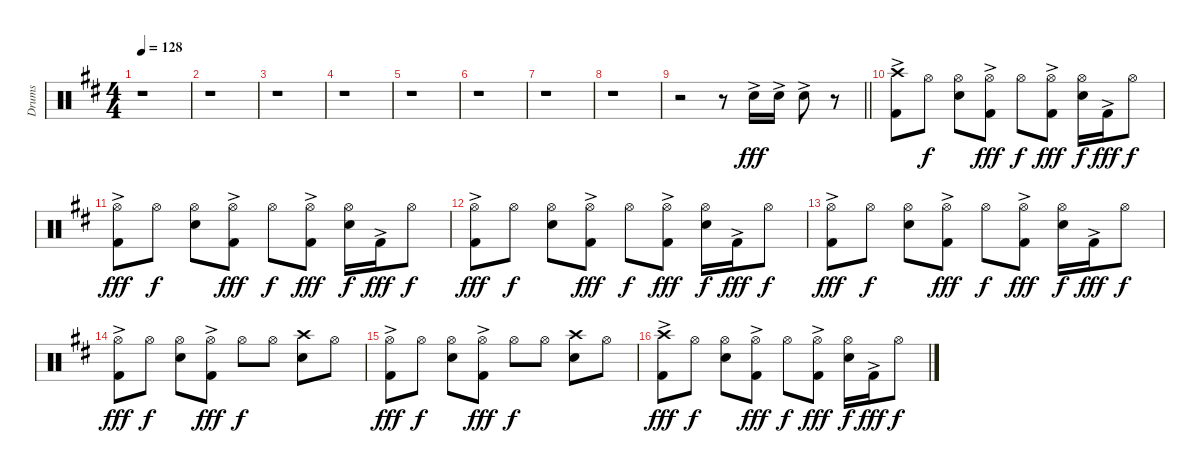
\track ("Drums" "Drums") {instrument percussion}
\staff {score}
\articulation defaults
\ts (4 4)
\tempo 128
\clef neutral
\ks d
r.1{dy fff} |
r.1 |
r.1 |
r.1 |
r.1 |
r.1 |
r.1 |
r.1 |
\barLineRight lightlight
r.2 r.8 "Snare (hit) 2"{ac}.16 "Snare (hit) 2"{ac}.16 "Snare (hit) 2"{ac}.8 r.8 |
("Crash high (hit)" "Kick (hit) 2"{ac}).8 "Hi-Hat (open)".8{dy f} ("Hi-Hat (open)" "Snare (hit) 2").8 ("Hi-Hat (open)" "Kick (hit) 2"{ac}).8{dy fff} "Hi-Hat (open)".8{dy f} ("Hi-Hat (open)" "Kick (hit) 2"{ac}).8{dy fff} ("Hi-Hat (open)" "Snare (hit) 2").16{dy f} "Kick (hit) 2"{ac}.16{dy fff} "Hi-Hat (open)".8{dy f} |
("Hi-Hat (open)" "Kick (hit) 2"{ac}).8{dy fff} "Hi-Hat (open)".8{dy f} ("Hi-Hat (open)" "Snare (hit) 2").8 ("Hi-Hat (open)" "Kick (hit) 2"{ac}).8{dy fff} "Hi-Hat (open)".8{dy f} ("Hi-Hat (open)" "Kick (hit) 2"{ac}).8{dy fff} ("Hi-Hat (open)" "Snare (hit) 2").16{dy f} "Kick (hit) 2"{ac}.16{dy fff} "Hi-Hat (open)".8{dy f} |
("Hi-Hat (open)" "Kick (hit) 2"{ac}).8{dy fff} "Hi-Hat (open)".8{dy f} ("Hi-Hat (open)" "Snare (hit) 2").8 ("Hi-Hat (open)" "Kick (hit) 2"{ac}).8{dy fff} "Hi-Hat (open)".8{dy f} ("Hi-Hat (open)" "Kick (hit) 2"{ac}).8{dy fff} ("Hi-Hat (open)" "Snare (hit) 2").16{dy f} "Kick (hit) 2"{ac}.16{dy fff} "Hi-Hat (open)".8{dy f} |
("Hi-Hat (open)" "Kick (hit) 2"{ac}).8{dy fff} "Hi-Hat (open)".8{dy f} ("Hi-Hat (open)" "Snare (hit) 2").8 ("Hi-Hat (open)" "Kick (hit) 2"{ac}).8{dy fff} "Hi-Hat (open)".8{dy f} ("Hi-Hat (open)" "Kick (hit) 2"{ac}).8{dy fff} ("Hi-Hat (open)" "Snare (hit) 2").16{dy f} "Kick (hit) 2"{ac}.16{dy fff} "Hi-Hat (open)".8{dy f} |
("Hi-Hat (open)" "Kick (hit) 2"{ac}).8{dy fff} "Hi-Hat (open)".8{dy f} ("Hi-Hat (open)" "Snare (hit) 2").8 ("Hi-Hat (open)" "Kick (hit) 2"{ac}).8{dy fff} "Hi-Hat (open)".8{dy f} "Hi-Hat (open)".8 ("Crash high (hit)" "Snare (hit) 2").8 "Hi-Hat (open)".8 |
("Hi-Hat (open)" "Kick (hit) 2"{ac}).8{dy fff} "Hi-Hat (open)".8{dy f} ("Hi-Hat (open)" "Snare (hit) 2").8 ("Hi-Hat (open)" "Kick (hit) 2"{ac}).8{dy fff} "Hi-Hat (open)".8{dy f} "Hi-Hat (open)".8 ("Crash high (hit)" "Snare (hit) 2").8 "Hi-Hat (open)".8 |
("Crash high (hit)" "Kick (hit) 2"{ac}).8{dy fff} "Hi-Hat (open)".8{dy f} ("Hi-Hat (open)" "Snare (hit) 2").8 ("Hi-Hat (open)" "Kick (hit) 2"{ac}).8{dy fff} "Hi-Hat (open)".8{dy f} ("Hi-Hat (open)" "Kick (hit) 2"{ac}).8{dy fff} ("Hi-Hat (open)" "Snare (hit) 2").16{dy f} "Kick (hit) 2"{ac}.16{dy fff} "Hi-Hat (open)".8{dy f}
